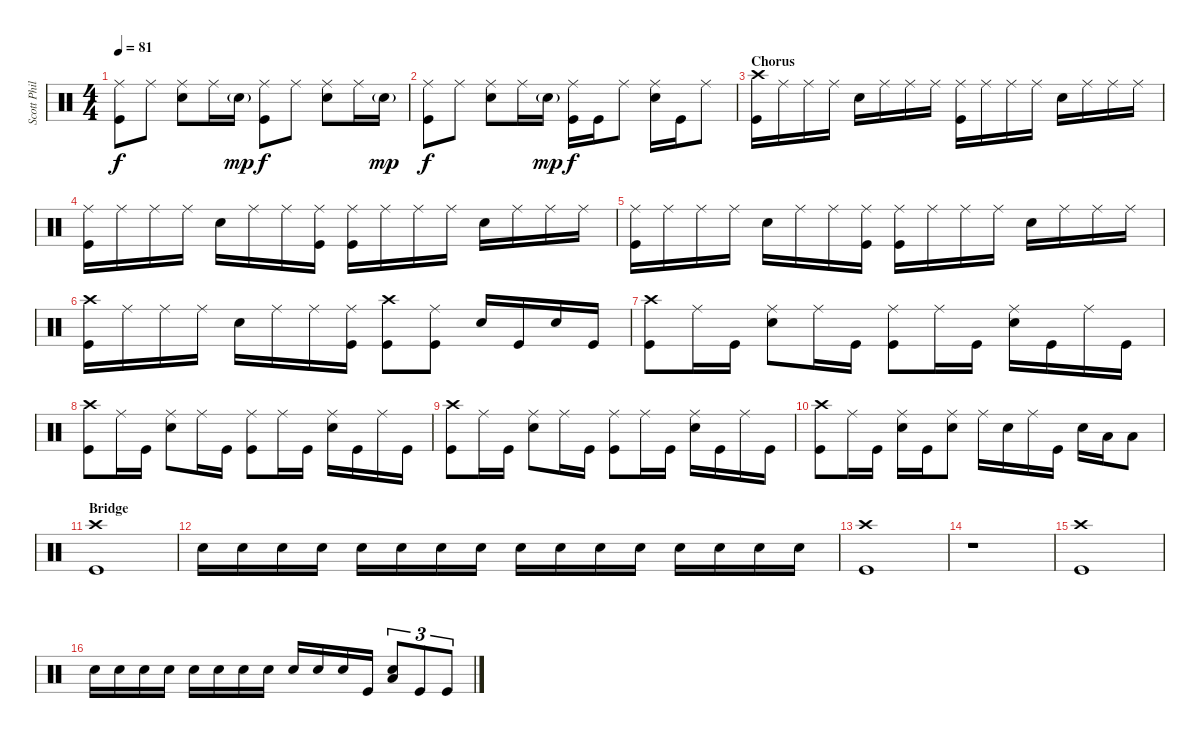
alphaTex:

\track ("Scott Phillips" "Scott Phil") {instrument percussion}
\staff {score}
\articulation defaults
\ts (4 4)
\tempo 81
\clef neutral
\ks c
("Ride (middle)" "Kick (hit)").8{dy f} "Ride (middle)".8 ("Ride (middle)" "Snare (hit) 2").8 "Ride (middle)".16 "Snare (hit) 2"{g}.16{dy mp} ("Ride (middle)" "Kick (hit)").8{dy f} "Ride (middle)".8 ("Ride (middle)" "Snare (hit) 2").8 "Ride (middle)".16 "Snare (hit) 2"{g}.16{dy mp} |
("Ride (middle)" "Kick (hit)").8{dy f} "Ride (middle)".8 ("Ride (middle)" "Snare (hit) 2").8 "Ride (middle)".16 "Snare (hit) 2"{g}.16{dy mp} ("Ride (middle)" "Kick (hit)").16{dy f} "Kick (hit)".16 "Ride (middle)".8 ("Ride (middle)" "Snare (hit) 2").16 "Kick (hit)".16 "Ride (middle)".8 |
\section ("" "Chorus")
("Crash high (hit)" "Kick (hit)").16 "Ride (middle)".16 "Ride (middle)".16 "Ride (middle)".16 "Snare (hit) 2".16 "Ride (middle)".16 "Ride (middle)".16 "Ride (middle)".16 ("Ride (middle)" "Kick (hit)").16 "Ride (middle)".16 "Ride (middle)".16 "Ride (middle)".16 "Snare (hit) 2".16 "Ride (middle)".16 "Ride (middle)".16 "Ride (middle)".16 |
("Ride (middle)" "Kick (hit)").16 "Ride (middle)".16 "Ride (middle)".16 "Ride (middle)".16 "Snare (hit) 2".16 "Ride (middle)".16 "Ride (middle)".16 ("Ride (middle)" "Kick (hit)").16 ("Ride (middle)" "Kick (hit)").16 "Ride (middle)".16 "Ride (middle)".16 "Ride (middle)".16 "Snare (hit) 2".16 "Ride (middle)".16 "Ride (middle)".16 "Ride (middle)".16 |
("Ride (middle)" "Kick (hit)").16 "Ride (middle)".16 "Ride (middle)".16 "Ride (middle)".16 "Snare (hit) 2".16 "Ride (middle)".16 "Ride (middle)".16 ("Ride (middle)" "Kick (hit)").16 ("Ride (middle)" "Kick (hit)").16 "Ride (middle)".16 "Ride (middle)".16 "Ride (middle)".16 "Snare (hit) 2".16 "Ride (middle)".16 "Ride (middle)".16 "Ride (middle)".16 |
("Crash high (hit)" "Kick (hit)").16 "Ride (middle)".16 "Ride (middle)".16 "Ride (middle)".16 "Snare (hit) 2".16 "Ride (middle)".16 "Ride (middle)".16 ("Ride (middle)" "Kick (hit)").16 ("Crash high (hit)" "Kick (hit)").8 ("Ride (middle)" "Kick (hit)").8 "Snare (hit) 2".16 "Kick (hit)".16 "Snare (hit) 2".16 "Kick (hit)".16 |
("Crash high (hit)" "Kick (hit)").8 "Ride (middle)".16 "Kick (hit)".16 ("Ride (middle)" "Snare (hit) 2").8 "Ride (middle)".16 "Kick (hit)".16 ("Ride (middle)" "Kick (hit)").8 "Ride (middle)".16 "Kick (hit)".16 ("Ride (middle)" "Snare (hit) 2").16 "Kick (hit)".16 "Ride (middle)".16 "Kick (hit)".16 |
("Crash high (hit)" "Kick (hit)").8 "Ride (middle)".16 "Kick (hit)".16 ("Ride (middle)" "Snare (hit) 2").8 "Ride (middle)".16 "Kick (hit)".16 ("Ride (middle)" "Kick (hit)").8 "Ride (middle)".16 "Kick (hit)".16 ("Ride (middle)" "Snare (hit) 2").16 "Kick (hit)".16 "Ride (middle)".16 "Kick (hit)".16 |
("Crash high (hit)" "Kick (hit)").8 "Ride (middle)".16 "Kick (hit)".16 ("Ride (middle)" "Snare (hit) 2").8 "Ride (middle)".16 "Kick (hit)".16 ("Ride (middle)" "Kick (hit)").8 "Ride (middle)".16 "Kick (hit)".16 ("Ride (middle)" "Snare (hit) 2").16 "Kick (hit)".16 "Ride (middle)".16 "Kick (hit)".16 |
("Crash high (hit)" "Kick (hit)").8 "Ride (middle)".16 "Kick (hit)".16 ("Ride (middle)" "Snare (hit) 2").16 "Kick (hit)".16 ("Ride (middle)" "Snare (hit) 2").8 "Ride (middle)".16 "Snare (hit) 2".16 "Ride (middle)".16 "Kick (hit)".16 "Snare (hit) 2".16 "Low Tom (hit)".16 "Low Tom (hit)".8 |
\section ("" "Bridge")
("Crash high (hit)" "Kick (hit)").1 |
"Snare (hit) 2".16 "Snare (hit) 2".16 "Snare (hit) 2".16 "Snare (hit) 2".16 "Snare (hit) 2".16 "Snare (hit) 2".16 "Snare (hit) 2".16 "Snare (hit) 2".16 "Snare (hit) 2".16 "Snare (hit) 2".16 "Snare (hit) 2".16 "Snare (hit) 2".16 "Snare (hit) 2".16 "Snare (hit) 2".16 "Snare (hit) 2".16 "Snare (hit) 2".16 |
("Crash high (hit)" "Kick (hit)").1 |
r.1 |
("Crash high (hit)" "Kick (hit)").1 |
"Snare (hit) 2".16 "Snare (hit) 2".16 "Snare (hit) 2".16 "Snare (hit) 2".16 "Snare (hit) 2".16 "Snare (hit) 2".16 "Snare (hit) 2".16 "Snare (hit) 2".16 "Snare (hit) 2".16 "Snare (hit) 2".16 "Snare (hit) 2".16 "Kick (hit)".16 ("Low Tom (hit)" "Snare (hit) 2").8{tu (3 2)} "Kick (hit)".8{tu (3 2)} "Kick (hit)".8{tu (3 2)}
